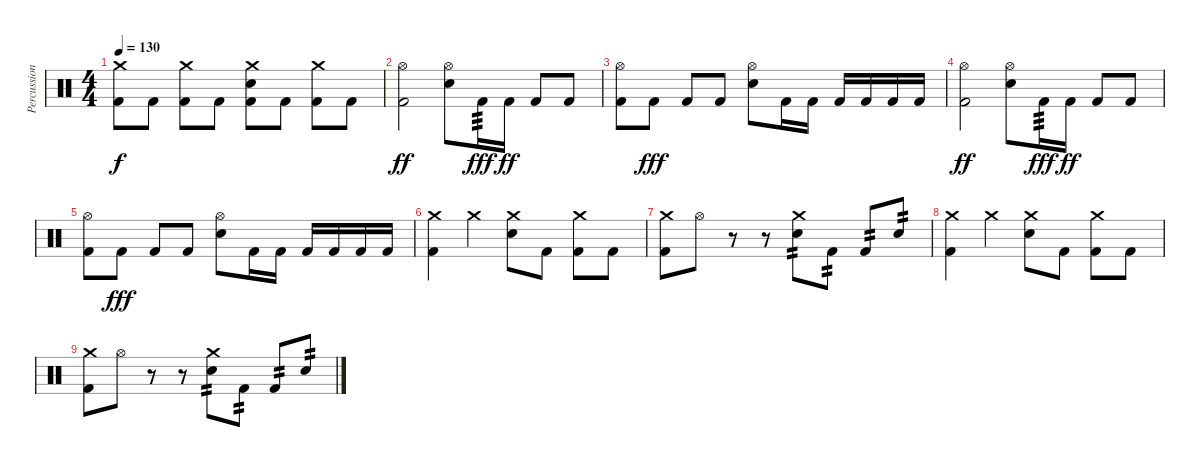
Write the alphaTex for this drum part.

\track ("Percussion" "Percussion") {instrument percussion}
\staff {score}
\articulation defaults
\ts (4 4)
\tempo 130
\clef neutral
\ks c
("Crash medium (hit)" "Kick (hit) 2").8{dy f} "Kick (hit) 2".8 ("Crash medium (hit)" "Kick (hit) 2").8 "Kick (hit) 2".8 ("Crash medium (hit)" "Electric Snare (hit)" "Kick (hit) 2").8 "Kick (hit) 2".8 ("Crash medium (hit)" "Kick (hit) 2").8 "Kick (hit) 2".8 |
("Hi-Hat (open)" "Kick (hit) 2").2{dy ff} ("Hi-Hat (open)" "Electric Snare (hit)").8 "Kick (hit) 2".16{tp 3 dy fff} "Kick (hit) 2".16{dy ff} "Kick (hit) 2".8 "Kick (hit) 2".8 |
("Hi-Hat (open)" "Kick (hit) 2").8 "Kick (hit) 2".8{dy fff} "Kick (hit) 2".8 "Kick (hit) 2".8 ("Hi-Hat (open)" "Electric Snare (hit)").8 "Kick (hit) 2".16 "Kick (hit) 2".16 "Kick (hit) 2".16 "Kick (hit) 2".16 "Kick (hit) 2".16 "Kick (hit) 2".16 |
("Hi-Hat (open)" "Kick (hit) 2").2{dy ff} ("Hi-Hat (open)" "Electric Snare (hit)").8 "Kick (hit) 2".16{tp 3 dy fff} "Kick (hit) 2".16{dy ff} "Kick (hit) 2".8 "Kick (hit) 2".8 |
("Hi-Hat (open)" "Kick (hit) 2").8 "Kick (hit) 2".8{dy fff} "Kick (hit) 2".8 "Kick (hit) 2".8 ("Hi-Hat (open)" "Electric Snare (hit)").8 "Kick (hit) 2".16 "Kick (hit) 2".16 "Kick (hit) 2".16 "Kick (hit) 2".16 "Kick (hit) 2".16 "Kick (hit) 2".16 |
("Crash medium (hit)" "Kick (hit) 2").4 "Crash medium (hit)".4 ("Crash medium (hit)" "Electric Snare (hit)").8 "Kick (hit) 2".8 ("Crash medium (hit)" "Kick (hit) 2").8 "Kick (hit) 2".8 |
("Crash medium (hit)" "Kick (hit) 2").8 "Hi-Hat (open)".8 r.8 r.8 ("Crash medium (hit)" "Electric Snare (hit)").8{tp 2} "Kick (hit) 2".8{tp 2} "Kick (hit) 2".8{tp 2} "Electric Snare (hit)".8{tp 2} |
("Crash medium (hit)" "Kick (hit) 2").4 "Crash medium (hit)".4 ("Crash medium (hit)" "Electric Snare (hit)").8 "Kick (hit) 2".8 ("Crash medium (hit)" "Kick (hit) 2").8 "Kick (hit) 2".8 |
("Crash medium (hit)" "Kick (hit) 2").8 "Hi-Hat (open)".8 r.8 r.8 ("Crash medium (hit)" "Electric Snare (hit)").8{tp 2} "Kick (hit) 2".8{tp 2} "Kick (hit) 2".8{tp 2} "Electric Snare (hit)".8{tp 2}
